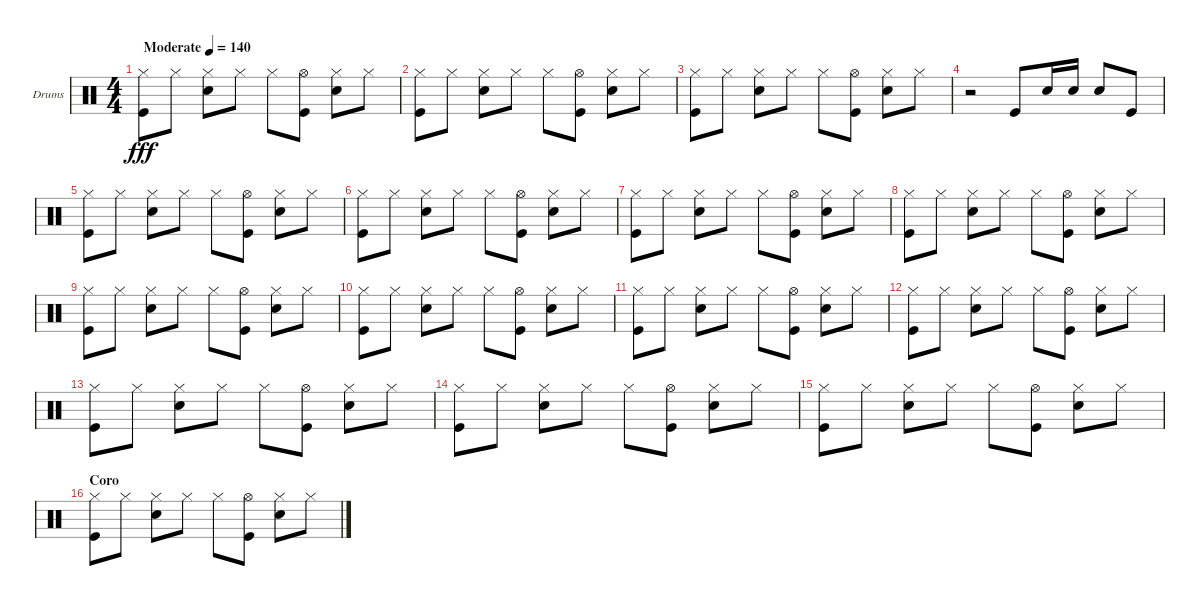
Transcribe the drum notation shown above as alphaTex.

\bracketExtendMode groupsimilarinstruments
\firstSystemTrackNameOrientation horizontal
\otherSystemsTrackNameOrientation horizontal
\track ("Drumkit" "Drums") {instrument percussion}
\staff {score}
\articulation defaults
\ts (4 4)
\beaming (8 2 2 2 2)
\tempo (140 "Moderate")
\clef neutral
\ks c
("Hi-Hat (closed)" "Kick (hit)").8{dy fff} "Hi-Hat (closed)".8 ("Hi-Hat (closed)" "Snare (hit) 2").8 "Hi-Hat (closed)".8 "Hi-Hat (closed)".8 ("Hi-Hat (open)" "Kick (hit)").8 ("Hi-Hat (closed)" "Snare (hit) 2").8 "Hi-Hat (closed)".8 |
("Hi-Hat (closed)" "Kick (hit)").8 "Hi-Hat (closed)".8 ("Hi-Hat (closed)" "Snare (hit) 2").8 "Hi-Hat (closed)".8 "Hi-Hat (closed)".8 ("Hi-Hat (open)" "Kick (hit)").8 ("Hi-Hat (closed)" "Snare (hit) 2").8 "Hi-Hat (closed)".8 |
("Hi-Hat (closed)" "Kick (hit)").8 "Hi-Hat (closed)".8 ("Hi-Hat (closed)" "Snare (hit) 2").8 "Hi-Hat (closed)".8 "Hi-Hat (closed)".8 ("Hi-Hat (open)" "Kick (hit)").8 ("Hi-Hat (closed)" "Snare (hit) 2").8 "Hi-Hat (closed)".8 |
r.2 "Kick (hit)".8 "Snare (hit) 2".16 "Snare (hit) 2".16 "Snare (hit) 2".8 "Kick (hit)".8 |
("Hi-Hat (closed)" "Kick (hit)").8 "Hi-Hat (closed)".8 ("Hi-Hat (closed)" "Snare (hit) 2").8 "Hi-Hat (closed)".8 "Hi-Hat (closed)".8 ("Hi-Hat (open)" "Kick (hit)").8 ("Hi-Hat (closed)" "Snare (hit) 2").8 "Hi-Hat (closed)".8 |
("Hi-Hat (closed)" "Kick (hit)").8 "Hi-Hat (closed)".8 ("Hi-Hat (closed)" "Snare (hit) 2").8 "Hi-Hat (closed)".8 "Hi-Hat (closed)".8 ("Hi-Hat (open)" "Kick (hit)").8 ("Hi-Hat (closed)" "Snare (hit) 2").8 "Hi-Hat (closed)".8 |
("Hi-Hat (closed)" "Kick (hit)").8 "Hi-Hat (closed)".8 ("Hi-Hat (closed)" "Snare (hit) 2").8 "Hi-Hat (closed)".8 "Hi-Hat (closed)".8 ("Hi-Hat (open)" "Kick (hit)").8 ("Hi-Hat (closed)" "Snare (hit) 2").8 "Hi-Hat (closed)".8 |
("Hi-Hat (closed)" "Kick (hit)").8 "Hi-Hat (closed)".8 ("Hi-Hat (closed)" "Snare (hit) 2").8 "Hi-Hat (closed)".8 "Hi-Hat (closed)".8 ("Hi-Hat (open)" "Kick (hit)").8 ("Hi-Hat (closed)" "Snare (hit) 2").8 "Hi-Hat (closed)".8 |
("Hi-Hat (closed)" "Kick (hit)").8 "Hi-Hat (closed)".8 ("Hi-Hat (closed)" "Snare (hit) 2").8 "Hi-Hat (closed)".8 "Hi-Hat (closed)".8 ("Hi-Hat (open)" "Kick (hit)").8 ("Hi-Hat (closed)" "Snare (hit) 2").8 "Hi-Hat (closed)".8 |
("Hi-Hat (closed)" "Kick (hit)").8 "Hi-Hat (closed)".8 ("Hi-Hat (closed)" "Snare (hit) 2").8 "Hi-Hat (closed)".8 "Hi-Hat (closed)".8 ("Hi-Hat (open)" "Kick (hit)").8 ("Hi-Hat (closed)" "Snare (hit) 2").8 "Hi-Hat (closed)".8 |
("Hi-Hat (closed)" "Kick (hit)").8 "Hi-Hat (closed)".8 ("Hi-Hat (closed)" "Snare (hit) 2").8 "Hi-Hat (closed)".8 "Hi-Hat (closed)".8 ("Hi-Hat (open)" "Kick (hit)").8 ("Hi-Hat (closed)" "Snare (hit) 2").8 "Hi-Hat (closed)".8 |
("Hi-Hat (closed)" "Kick (hit)").8 "Hi-Hat (closed)".8 ("Hi-Hat (closed)" "Snare (hit) 2").8 "Hi-Hat (closed)".8 "Hi-Hat (closed)".8 ("Hi-Hat (open)" "Kick (hit)").8 ("Hi-Hat (closed)" "Snare (hit) 2").8 "Hi-Hat (closed)".8 |
("Hi-Hat (closed)" "Kick (hit)").8 "Hi-Hat (closed)".8 ("Hi-Hat (closed)" "Snare (hit) 2").8 "Hi-Hat (closed)".8 "Hi-Hat (closed)".8 ("Hi-Hat (open)" "Kick (hit)").8 ("Hi-Hat (closed)" "Snare (hit) 2").8 "Hi-Hat (closed)".8 |
("Hi-Hat (closed)" "Kick (hit)").8 "Hi-Hat (closed)".8 ("Hi-Hat (closed)" "Snare (hit) 2").8 "Hi-Hat (closed)".8 "Hi-Hat (closed)".8 ("Hi-Hat (open)" "Kick (hit)").8 ("Hi-Hat (closed)" "Snare (hit) 2").8 "Hi-Hat (closed)".8 |
("Hi-Hat (closed)" "Kick (hit)").8 "Hi-Hat (closed)".8 ("Hi-Hat (closed)" "Snare (hit) 2").8 "Hi-Hat (closed)".8 "Hi-Hat (closed)".8 ("Hi-Hat (open)" "Kick (hit)").8 ("Hi-Hat (closed)" "Snare (hit) 2").8 "Hi-Hat (closed)".8 |
\section ("" "Coro")
("Hi-Hat (closed)" "Kick (hit)").8 "Hi-Hat (closed)".8 ("Hi-Hat (closed)" "Snare (hit) 2").8 "Hi-Hat (closed)".8 "Hi-Hat (closed)".8 ("Hi-Hat (open)" "Kick (hit)").8 ("Hi-Hat (closed)" "Snare (hit) 2").8 "Hi-Hat (closed)".8
